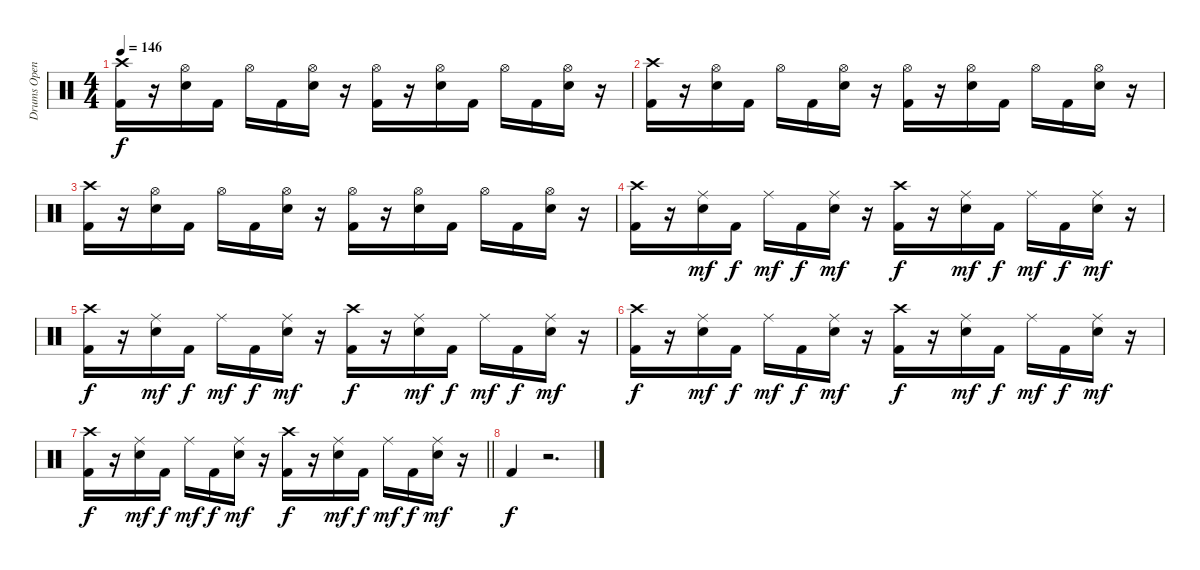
\track ("Drums Open HH" "Drums Open") {instrument percussion}
\staff {score}
\articulation defaults
\ts (4 4)
\tempo 146
\clef neutral
\ks c
("Crash high (hit)" "Kick (hit) 2").16{dy f} r.16 ("Hi-Hat (open)" "Snare (hit) 2").16 "Kick (hit) 2".16 "Hi-Hat (open)".16 "Kick (hit) 2".16 ("Hi-Hat (open)" "Snare (hit) 2").16 r.16 ("Hi-Hat (open)" "Kick (hit) 2").16 r.16 ("Hi-Hat (open)" "Snare (hit) 2").16 "Kick (hit) 2".16 "Hi-Hat (open)".16 "Kick (hit) 2".16 ("Hi-Hat (open)" "Snare (hit) 2").16 r.16 |
("Crash high (hit)" "Kick (hit) 2").16 r.16 ("Hi-Hat (open)" "Snare (hit) 2").16 "Kick (hit) 2".16 "Hi-Hat (open)".16 "Kick (hit) 2".16 ("Hi-Hat (open)" "Snare (hit) 2").16 r.16 ("Hi-Hat (open)" "Kick (hit) 2").16 r.16 ("Hi-Hat (open)" "Snare (hit) 2").16 "Kick (hit) 2".16 "Hi-Hat (open)".16 "Kick (hit) 2".16 ("Hi-Hat (open)" "Snare (hit) 2").16 r.16 |
("Crash high (hit)" "Kick (hit) 2").16 r.16 ("Hi-Hat (open)" "Snare (hit) 2").16 "Kick (hit) 2".16 "Hi-Hat (open)".16 "Kick (hit) 2".16 ("Hi-Hat (open)" "Snare (hit) 2").16 r.16 ("Hi-Hat (open)" "Kick (hit) 2").16 r.16 ("Hi-Hat (open)" "Snare (hit) 2").16 "Kick (hit) 2".16 "Hi-Hat (open)".16 "Kick (hit) 2".16 ("Hi-Hat (open)" "Snare (hit) 2").16 r.16 |
("Crash high (hit)" "Kick (hit) 2").16 r.16 ("Ride (middle)" "Snare (hit) 2").16{dy mf} "Kick (hit) 2".16{dy f} "Ride (middle)".16{dy mf} "Kick (hit) 2".16{dy f} ("Ride (middle)" "Snare (hit) 2").16{dy mf} r.16 ("Crash high (hit)" "Kick (hit) 2").16{dy f} r.16 ("Ride (middle)" "Snare (hit) 2").16{dy mf} "Kick (hit) 2".16{dy f} "Ride (middle)".16{dy mf} "Kick (hit) 2".16{dy f} ("Ride (middle)" "Snare (hit) 2").16{dy mf} r.16 |
("Crash high (hit)" "Kick (hit) 2").16{dy f} r.16 ("Ride (middle)" "Snare (hit) 2").16{dy mf} "Kick (hit) 2".16{dy f} "Ride (middle)".16{dy mf} "Kick (hit) 2".16{dy f} ("Ride (middle)" "Snare (hit) 2").16{dy mf} r.16 ("Crash high (hit)" "Kick (hit) 2").16{dy f} r.16 ("Ride (middle)" "Snare (hit) 2").16{dy mf} "Kick (hit) 2".16{dy f} "Ride (middle)".16{dy mf} "Kick (hit) 2".16{dy f} ("Ride (middle)" "Snare (hit) 2").16{dy mf} r.16 |
("Crash high (hit)" "Kick (hit) 2").16{dy f} r.16 ("Ride (middle)" "Snare (hit) 2").16{dy mf} "Kick (hit) 2".16{dy f} "Ride (middle)".16{dy mf} "Kick (hit) 2".16{dy f} ("Ride (middle)" "Snare (hit) 2").16{dy mf} r.16 ("Crash high (hit)" "Kick (hit) 2").16{dy f} r.16 ("Ride (middle)" "Snare (hit) 2").16{dy mf} "Kick (hit) 2".16{dy f} "Ride (middle)".16{dy mf} "Kick (hit) 2".16{dy f} ("Ride (middle)" "Snare (hit) 2").16{dy mf} r.16 |
\barLineRight lightlight
("Crash high (hit)" "Kick (hit) 2").16{dy f} r.16 ("Ride (middle)" "Snare (hit) 2").16{dy mf} "Kick (hit) 2".16{dy f} "Ride (middle)".16{dy mf} "Kick (hit) 2".16{dy f} ("Ride (middle)" "Snare (hit) 2").16{dy mf} r.16 ("Crash high (hit)" "Kick (hit) 2").16{dy f} r.16 ("Ride (middle)" "Snare (hit) 2").16{dy mf} "Kick (hit) 2".16{dy f} "Ride (middle)".16{dy mf} "Kick (hit) 2".16{dy f} ("Ride (middle)" "Snare (hit) 2").16{dy mf} r.16 |
"Kick (hit) 2".4{dy f} r.2{d}
